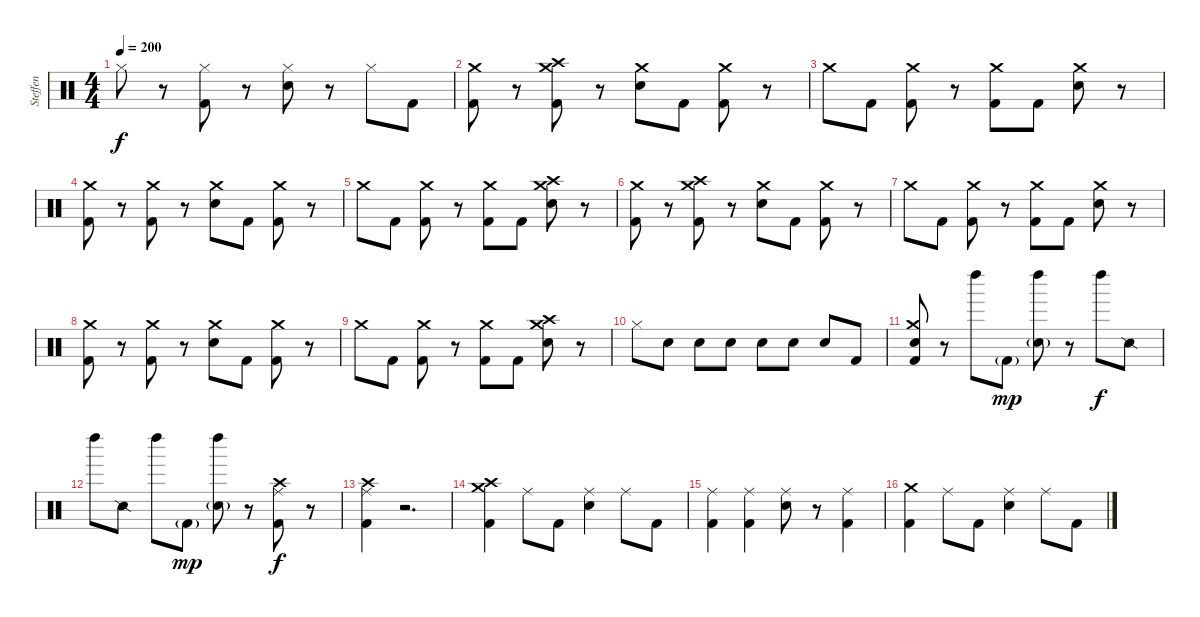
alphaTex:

\track ("Steffen" "Steffen") {instrument percussion}
\staff {score}
\articulation defaults
\ts (4 4)
\tempo 200
\clef neutral
\ks c "Hi-Hat (closed)".8{dy f}
r.8 ("Hi-Hat (closed)" "Kick (hit) 2").8 r.8 ("Hi-Hat (closed)" "Snare (hit) 2").8 r.8 "Hi-Hat (closed)".8 "Kick (hit) 2".8 |
("Crash medium (hit)" "Kick (hit) 2").8 r.8 ("Crash high (hit)" "Crash medium (hit)" "Kick (hit) 2").8 r.8 ("Crash medium (hit)" "Snare (hit) 2").8 "Kick (hit) 2".8 ("Crash medium (hit)" "Kick (hit) 2").8 r.8 |
"Crash medium (hit)".8 "Kick (hit) 2".8 ("Crash medium (hit)" "Kick (hit) 2").8 r.8 ("Crash medium (hit)" "Kick (hit) 2").8 "Kick (hit) 2".8 ("Crash medium (hit)" "Snare (hit) 2").8 r.8 |
("Crash medium (hit)" "Kick (hit) 2").8 r.8 ("Crash medium (hit)" "Kick (hit) 2").8 r.8 ("Crash medium (hit)" "Snare (hit) 2").8 "Kick (hit) 2".8 ("Crash medium (hit)" "Kick (hit) 2").8 r.8 |
"Crash medium (hit)".8 "Kick (hit) 2".8 ("Crash medium (hit)" "Kick (hit) 2").8 r.8 ("Crash medium (hit)" "Kick (hit) 2").8 "Kick (hit) 2".8 ("Crash high (hit)" "Crash medium (hit)" "Snare (hit) 2").8 r.8 |
("Crash medium (hit)" "Kick (hit) 2").8 r.8 ("Crash high (hit)" "Crash medium (hit)" "Kick (hit) 2").8 r.8 ("Crash medium (hit)" "Snare (hit) 2").8 "Kick (hit) 2".8 ("Crash medium (hit)" "Kick (hit) 2").8 r.8 |
"Crash medium (hit)".8 "Kick (hit) 2".8 ("Crash medium (hit)" "Kick (hit) 2").8 r.8 ("Crash medium (hit)" "Kick (hit) 2").8 "Kick (hit) 2".8 ("Crash medium (hit)" "Snare (hit) 2").8 r.8 |
("Crash medium (hit)" "Kick (hit) 2").8 r.8 ("Crash medium (hit)" "Kick (hit) 2").8 r.8 ("Crash medium (hit)" "Snare (hit) 2").8 "Kick (hit) 2".8 ("Crash medium (hit)" "Kick (hit) 2").8 r.8 |
"Crash medium (hit)".8 "Kick (hit) 2".8 ("Crash medium (hit)" "Kick (hit) 2").8 r.8 ("Crash medium (hit)" "Kick (hit) 2").8 "Kick (hit) 2".8 ("Crash high (hit)" "Crash medium (hit)" "Snare (hit) 2").8 r.8 |
"Hi-Hat (closed)".8 "Electric Snare (hit)".8 "Electric Snare (hit)".8 "Electric Snare (hit)".8 "Electric Snare (hit)".8 "Electric Snare (hit)".8 "Electric Snare (hit)".8 "Kick (hit) 2".8 |
("Crash medium (hit)" "Kick (hit) 2" "Electric Snare (hit)").8 r.8 "Left Maraca (hit)".8 "Kick (hit) 2"{g}.8{dy mp} ("Left Maraca (hit)" "Electric Snare (hit)"{g}).8 r.8 "Left Maraca (hit)".8{dy f} "Snare (side stick) 2".8 |
"Left Maraca (hit)".8 "Snare (side stick) 2".8 "Left Maraca (hit)".8 "Kick (hit) 2"{g}.8{dy mp} ("Left Maraca (hit)" "Electric Snare (hit)"{g}).8 r.8 ("Ride (middle)" "Crash high (hit)" "Kick (hit) 2").8{dy f} r.8 |
("Ride (middle)" "Crash high (hit)" "Kick (hit) 2").4 r.2{d} |
("Crash high (hit)" "Crash medium (hit)" "Kick (hit) 2").4 "Ride (middle)".8 "Kick (hit) 2".8 ("Ride (middle)" "Electric Snare (hit)").4 "Ride (middle)".8 "Kick (hit) 2".8 |
("Ride (middle)" "Kick (hit) 2").4 ("Ride (middle)" "Kick (hit) 2").4 ("Ride (middle)" "Electric Snare (hit)").8 r.8 ("Ride (middle)" "Kick (hit) 2").4 |
("Crash medium (hit)" "Kick (hit) 2").4 "Ride (middle)".8 "Kick (hit) 2".8 ("Ride (middle)" "Electric Snare (hit)").4 "Ride (middle)".8 "Kick (hit) 2".8
